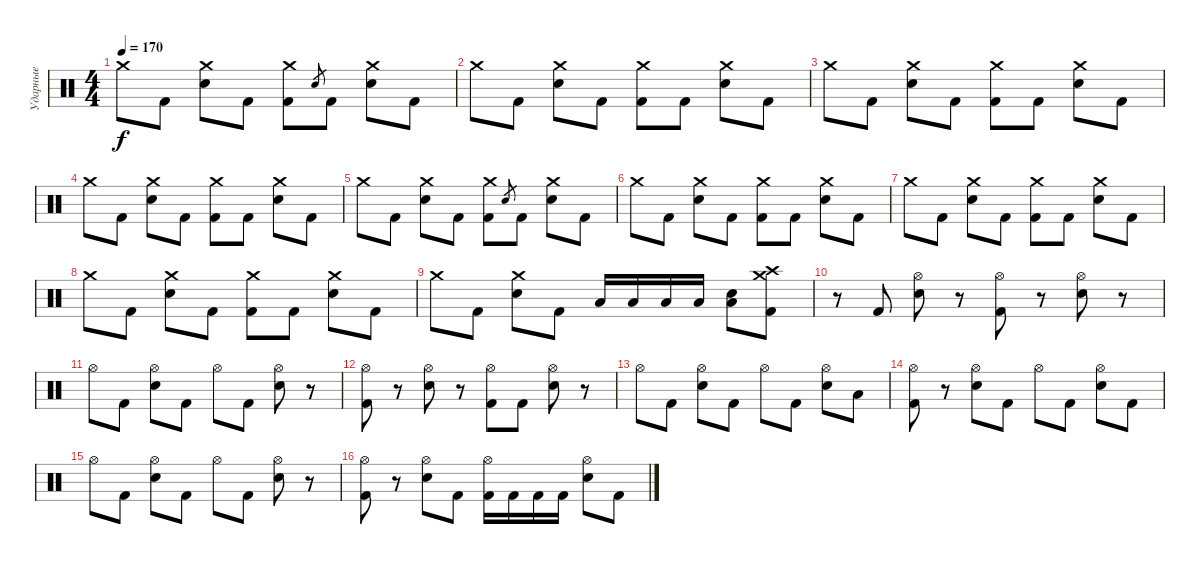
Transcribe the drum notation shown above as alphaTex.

\track ("Ударные" "Ударные") {instrument percussion}
\staff {score}
\articulation defaults
\ts (4 4)
\tempo 170
\clef neutral
\ks c "Crash medium (hit)".8{dy f} "Kick (hit) 2".8
("Crash medium (hit)" "Electric Snare (hit)").8 "Kick (hit) 2".8 ("Crash medium (hit)" "Kick (hit) 2").8 "Electric Snare (hit)".8{gr} "Kick (hit) 2".8 ("Crash medium (hit)" "Electric Snare (hit)").8 "Kick (hit) 2".8 |
"Crash medium (hit)".8 "Kick (hit) 2".8 ("Crash medium (hit)" "Electric Snare (hit)").8 "Kick (hit) 2".8 ("Crash medium (hit)" "Kick (hit) 2").8 "Kick (hit) 2".8 ("Crash medium (hit)" "Electric Snare (hit)").8 "Kick (hit) 2".8 |
"Crash medium (hit)".8 "Kick (hit) 2".8 ("Crash medium (hit)" "Electric Snare (hit)").8 "Kick (hit) 2".8 ("Crash medium (hit)" "Kick (hit) 2").8 "Kick (hit) 2".8 ("Crash medium (hit)" "Electric Snare (hit)").8 "Kick (hit) 2".8 |
"Crash medium (hit)".8 "Kick (hit) 2".8 ("Crash medium (hit)" "Electric Snare (hit)").8 "Kick (hit) 2".8 ("Crash medium (hit)" "Kick (hit) 2").8 "Kick (hit) 2".8 ("Crash medium (hit)" "Electric Snare (hit)").8 "Kick (hit) 2".8 |
"Crash medium (hit)".8 "Kick (hit) 2".8 ("Crash medium (hit)" "Electric Snare (hit)").8 "Kick (hit) 2".8 ("Crash medium (hit)" "Kick (hit) 2").8 "Electric Snare (hit)".8{gr} "Kick (hit) 2".8 ("Crash medium (hit)" "Electric Snare (hit)").8 "Kick (hit) 2".8 |
"Crash medium (hit)".8 "Kick (hit) 2".8 ("Crash medium (hit)" "Electric Snare (hit)").8 "Kick (hit) 2".8 ("Crash medium (hit)" "Kick (hit) 2").8 "Kick (hit) 2".8 ("Crash medium (hit)" "Electric Snare (hit)").8 "Kick (hit) 2".8 |
"Crash medium (hit)".8 "Kick (hit) 2".8 ("Crash medium (hit)" "Electric Snare (hit)").8 "Kick (hit) 2".8 ("Crash medium (hit)" "Kick (hit) 2").8 "Kick (hit) 2".8 ("Crash medium (hit)" "Electric Snare (hit)").8 "Kick (hit) 2".8 |
"Crash medium (hit)".8 "Kick (hit) 2".8 ("Crash medium (hit)" "Electric Snare (hit)").8 "Kick (hit) 2".8 ("Crash medium (hit)" "Kick (hit) 2").8 "Kick (hit) 2".8 ("Crash medium (hit)" "Electric Snare (hit)").8 "Kick (hit) 2".8 |
"Crash medium (hit)".8 "Kick (hit) 2".8 ("Crash medium (hit)" "Electric Snare (hit)").8 "Kick (hit) 2".8 "Low Tom (hit)".16 "Low Tom (hit)".16 "Low Floor Tom (hit)".16 "Low Floor Tom (hit)".16 ("Low Floor Tom (hit)" "Electric Snare (hit)").8 ("Crash medium (hit)" "Crash high (hit)" "Kick (hit) 2").8 |
r.8 "Kick (hit) 2".8 ("Hi-Hat (open)" "Electric Snare (hit)").8 r.8 ("Hi-Hat (open)" "Kick (hit) 2").8 r.8 ("Hi-Hat (open)" "Electric Snare (hit)").8 r.8 |
"Hi-Hat (open)".8 "Kick (hit) 2".8 ("Hi-Hat (open)" "Electric Snare (hit)").8 "Kick (hit) 2".8 "Hi-Hat (open)".8 "Kick (hit) 2".8 ("Hi-Hat (open)" "Electric Snare (hit)").8 r.8 |
("Hi-Hat (open)" "Kick (hit) 2").8 r.8 ("Hi-Hat (open)" "Electric Snare (hit)").8 r.8 ("Hi-Hat (open)" "Kick (hit) 2").8 "Kick (hit) 2".8 ("Hi-Hat (open)" "Electric Snare (hit)").8 r.8 |
"Hi-Hat (open)".8 "Kick (hit) 2".8 ("Hi-Hat (open)" "Electric Snare (hit)").8 "Kick (hit) 2".8 "Hi-Hat (open)".8 "Kick (hit) 2".8 ("Hi-Hat (open)" "Electric Snare (hit)").8 "Low Tom (hit)".8 |
("Hi-Hat (open)" "Kick (hit) 2").8 r.8 ("Hi-Hat (open)" "Electric Snare (hit)").8 "Kick (hit) 2".8 "Hi-Hat (open)".8 "Kick (hit) 2".8 ("Hi-Hat (open)" "Electric Snare (hit)").8 "Kick (hit) 2".8 |
"Hi-Hat (open)".8 "Kick (hit) 2".8 ("Hi-Hat (open)" "Electric Snare (hit)").8 "Kick (hit) 2".8 "Hi-Hat (open)".8 "Kick (hit) 2".8 ("Hi-Hat (open)" "Electric Snare (hit)").8 r.8 |
("Hi-Hat (open)" "Kick (hit) 2").8 r.8 ("Hi-Hat (open)" "Electric Snare (hit)").8 "Kick (hit) 2".8 ("Hi-Hat (open)" "Kick (hit) 2").16 "Kick (hit) 2".16 "Kick (hit) 2".16 "Kick (hit) 2".16 ("Hi-Hat (open)" "Electric Snare (hit)").8 "Kick (hit) 2".8
